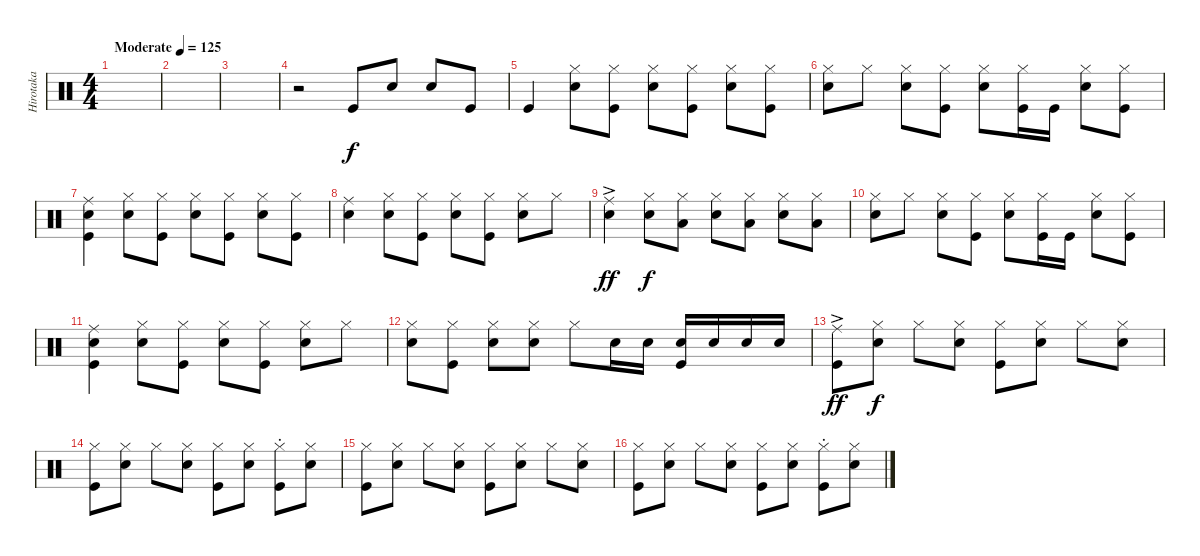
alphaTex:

\track ("Hirotaka" "Hirotaka") {instrument percussion}
\staff {score}
\articulation defaults
\ts (4 4)
\tempo (125 "Moderate")
\clef neutral
\ks c
|
|
|
r.2 "Kick (hit)".8 "Snare (hit) 2".8 "Snare (hit) 2".8 "Kick (hit)".8 |
"Kick (hit)".4 ("Hi-Hat (closed)" "Snare (hit) 2").8 ("Hi-Hat (closed)" "Kick (hit)").8 ("Hi-Hat (closed)" "Snare (hit) 2").8 ("Hi-Hat (closed)" "Kick (hit)").8 ("Hi-Hat (closed)" "Snare (hit) 2").8 ("Hi-Hat (closed)" "Kick (hit)").8 |
("Hi-Hat (closed)" "Snare (hit) 2").8 "Hi-Hat (closed)".8 ("Hi-Hat (closed)" "Snare (hit) 2").8 ("Hi-Hat (closed)" "Kick (hit)").8 ("Hi-Hat (closed)" "Snare (hit) 2").8 ("Hi-Hat (closed)" "Kick (hit)").16 "Kick (hit)".16 ("Hi-Hat (closed)" "Snare (hit) 2").8 ("Hi-Hat (closed)" "Kick (hit)").8 |
("Ride (middle)" "Snare (hit) 2" "Kick (hit)").4 ("Hi-Hat (closed)" "Snare (hit) 2").8 ("Hi-Hat (closed)" "Kick (hit)").8 ("Hi-Hat (closed)" "Snare (hit) 2").8 ("Hi-Hat (closed)" "Kick (hit)").8 ("Hi-Hat (closed)" "Snare (hit) 2").8 ("Hi-Hat (closed)" "Kick (hit)").8 |
("Ride (middle)" "Snare (hit) 2").4 ("Hi-Hat (closed)" "Snare (hit) 2").8 ("Hi-Hat (closed)" "Kick (hit)").8 ("Hi-Hat (closed)" "Snare (hit) 2").8 ("Hi-Hat (closed)" "Kick (hit)").8 ("Hi-Hat (closed)" "Snare (hit) 2").8 "Hi-Hat (closed)".8 |
("Ride (middle)"{ac} "Snare (hit) 2").4{dy ff} ("Hi-Hat (closed)" "Snare (hit) 2").8{dy f} ("Hi-Hat (closed)" "Low Tom (hit)").8 ("Hi-Hat (closed)" "Snare (hit) 2").8 ("Hi-Hat (closed)" "Low Tom (hit)").8 ("Hi-Hat (closed)" "Snare (hit) 2").8 ("Hi-Hat (closed)" "Low Tom (hit)").8 |
("Hi-Hat (closed)" "Snare (hit) 2").8 "Hi-Hat (closed)".8 ("Hi-Hat (closed)" "Snare (hit) 2").8 ("Hi-Hat (closed)" "Kick (hit)").8 ("Hi-Hat (closed)" "Snare (hit) 2").8 ("Hi-Hat (closed)" "Kick (hit)").16 "Kick (hit)".16 ("Hi-Hat (closed)" "Snare (hit) 2").8 ("Hi-Hat (closed)" "Kick (hit)").8 |
("Ride (middle)" "Snare (hit) 2" "Kick (hit)").4 ("Hi-Hat (closed)" "Snare (hit) 2").8 ("Hi-Hat (closed)" "Kick (hit)").8 ("Hi-Hat (closed)" "Snare (hit) 2").8 ("Hi-Hat (closed)" "Kick (hit)").8 ("Hi-Hat (closed)" "Snare (hit) 2").8 "Hi-Hat (closed)".8 |
("Hi-Hat (closed)" "Snare (hit) 2").8 ("Hi-Hat (closed)" "Kick (hit)").8 ("Hi-Hat (closed)" "Snare (hit) 2").8 ("Hi-Hat (closed)" "Snare (hit) 2").8 "Hi-Hat (closed)".8 "Snare (hit) 2".16 "Snare (hit) 2".16 ("Snare (hit) 2" "Kick (hit)").16 "Snare (hit) 2".16 "Snare (hit) 2".16 "Snare (hit) 2".16 |
("Ride (middle)"{ac} "Kick (hit)").8{dy ff} ("Hi-Hat (closed)" "Snare (hit) 2").8{dy f} "Hi-Hat (closed)".8 ("Hi-Hat (closed)" "Snare (hit) 2").8 ("Hi-Hat (closed)" "Kick (hit)").8 ("Hi-Hat (closed)" "Snare (hit) 2").8 "Hi-Hat (closed)".8 ("Hi-Hat (closed)" "Snare (hit) 2").8 |
("Hi-Hat (closed)" "Kick (hit)").8 ("Hi-Hat (closed)" "Snare (hit) 2").8 "Hi-Hat (closed)".8 ("Hi-Hat (closed)" "Snare (hit) 2").8 ("Hi-Hat (closed)" "Kick (hit)").8 ("Hi-Hat (closed)" "Snare (hit) 2").8 ("Hi-Hat (closed)" "Kick (hit)"{st}).8 ("Hi-Hat (closed)" "Snare (hit) 2").8 |
("Hi-Hat (closed)" "Kick (hit)").8 ("Hi-Hat (closed)" "Snare (hit) 2").8 "Hi-Hat (closed)".8 ("Hi-Hat (closed)" "Snare (hit) 2").8 ("Hi-Hat (closed)" "Kick (hit)").8 ("Hi-Hat (closed)" "Snare (hit) 2").8 "Hi-Hat (closed)".8 ("Hi-Hat (closed)" "Snare (hit) 2").8 |
("Hi-Hat (closed)" "Kick (hit)").8 ("Hi-Hat (closed)" "Snare (hit) 2").8 "Hi-Hat (closed)".8 ("Hi-Hat (closed)" "Snare (hit) 2").8 ("Hi-Hat (closed)" "Kick (hit)").8 ("Hi-Hat (closed)" "Snare (hit) 2").8 ("Hi-Hat (closed)" "Kick (hit)"{st}).8 ("Hi-Hat (closed)" "Snare (hit) 2").8
